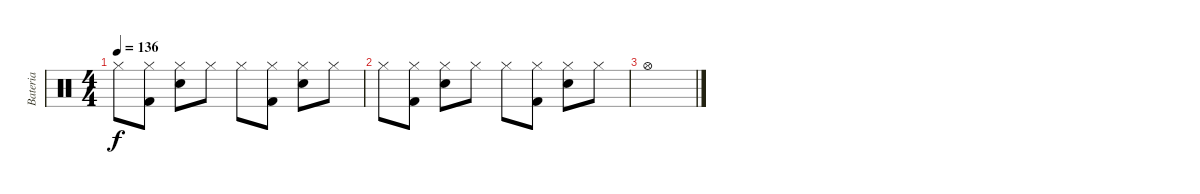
\track ("Bateria" "Bateria") {instrument percussion}
\staff {score}
\articulation defaults
\ts (4 4)
\tempo 136
\clef neutral
\ks c "Hi-Hat (closed)".8{dy f}
("Kick (hit) 2" "Hi-Hat (closed)").8 ("Snare (hit) 2" "Hi-Hat (closed)").8 "Hi-Hat (closed)".8 "Hi-Hat (closed)".8 ("Kick (hit) 2" "Hi-Hat (closed)").8 ("Hi-Hat (closed)" "Snare (hit) 2").8 "Hi-Hat (closed)".8 |
"Hi-Hat (closed)".8 ("Kick (hit) 2" "Hi-Hat (closed)").8 ("Snare (hit) 2" "Hi-Hat (closed)").8 "Hi-Hat (closed)".8 "Hi-Hat (closed)".8 ("Kick (hit) 2" "Hi-Hat (closed)").8 ("Hi-Hat (closed)" "Snare (hit) 2").8 "Hi-Hat (closed)".8 |
"Hi-Hat (open)".1
